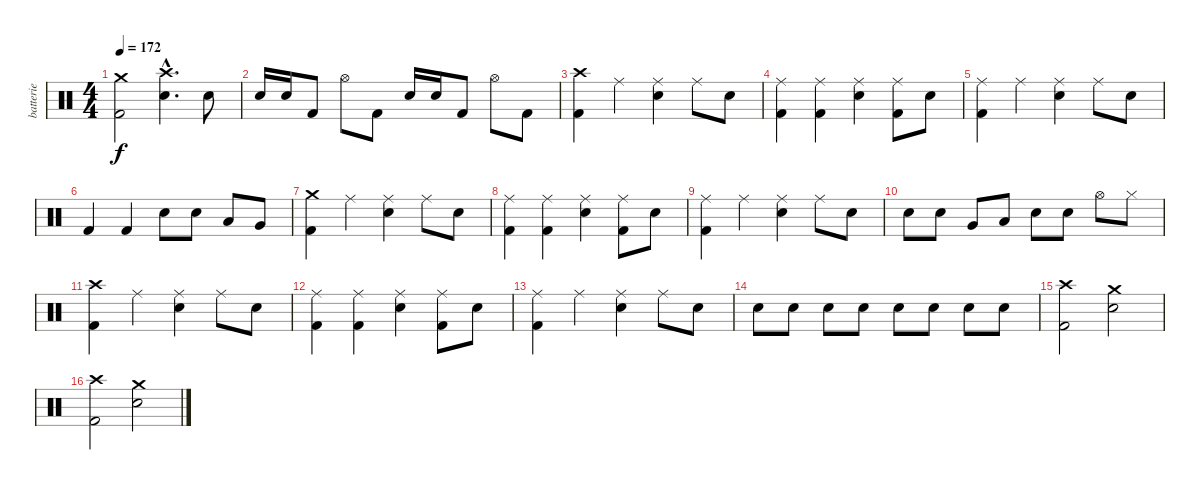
\track ("batterie" "batterie") {instrument percussion}
\staff {score}
\articulation defaults
\ts (4 4)
\tempo 172
\clef neutral
\ks c
("Kick (hit) 2" "Crash medium (hit)").2{dy f} ("Crash high (hit)"{hac} "Electric Snare (hit)"{hac}).4{d} "Electric Snare (hit)".8 |
"Electric Snare (hit)".16 "Electric Snare (hit)".16 "Kick (hit) 2".8 "Hi-Hat (open)".8 "Kick (hit) 2".8 "Electric Snare (hit)".16 "Electric Snare (hit)".16 "Kick (hit) 2".8 "Hi-Hat (open)".8 "Kick (hit) 2".8 |
("Crash high (hit)" "Kick (hit) 2").4 "Ride (middle)".4 ("Electric Snare (hit)" "Ride (middle)").4 "Ride (middle)".8 "Electric Snare (hit)".8 |
("Kick (hit) 2" "Ride (middle)").4 ("Kick (hit) 2" "Ride (middle)").4 ("Ride (middle)" "Electric Snare (hit)").4 ("Ride (middle)" "Kick (hit) 2").8 "Electric Snare (hit)".8 |
("Ride (middle)" "Kick (hit) 2").4 "Ride (middle)".4 ("Ride (middle)" "Electric Snare (hit)").4 "Ride (middle)".8 "Electric Snare (hit)".8 |
"Kick (hit) 2".4 "Kick (hit) 2".4 "Electric Snare (hit)".8 "Electric Snare (hit)".8 "Low Tom (hit)".8 "Very Low Tom (hit)".8 |
("Crash medium (hit)" "Kick (hit) 2").4 "Ride (middle)".4 ("Electric Snare (hit)" "Ride (middle)").4 "Ride (middle)".8 "Electric Snare (hit)".8 |
("Kick (hit) 2" "Ride (middle)").4 ("Kick (hit) 2" "Ride (middle)").4 ("Ride (middle)" "Electric Snare (hit)").4 ("Ride (middle)" "Kick (hit) 2").8 "Electric Snare (hit)".8 |
("Ride (middle)" "Kick (hit) 2").4 "Ride (middle)".4 ("Ride (middle)" "Electric Snare (hit)").4 "Ride (middle)".8 "Electric Snare (hit)".8 |
"Electric Snare (hit)".8 "Electric Snare (hit)".8 "Very Low Tom (hit)".8 "Low Tom (hit)".8 "Electric Snare (hit)".8 "Electric Snare (hit)".8 "Hi-Hat (open)".8 "Hi-Hat (closed)".8 |
("Crash high (hit)" "Kick (hit) 2").4 "Ride (middle)".4 ("Electric Snare (hit)" "Ride (middle)").4 "Ride (middle)".8 "Electric Snare (hit)".8 |
("Kick (hit) 2" "Ride (middle)").4 ("Kick (hit) 2" "Ride (middle)").4 ("Ride (middle)" "Electric Snare (hit)").4 ("Ride (middle)" "Kick (hit) 2").8 "Electric Snare (hit)".8 |
("Ride (middle)" "Kick (hit) 2").4 "Ride (middle)".4 ("Ride (middle)" "Electric Snare (hit)").4 "Ride (middle)".8 "Electric Snare (hit)".8 |
"Electric Snare (hit)".8 "Electric Snare (hit)".8 "Electric Snare (hit)".8 "Electric Snare (hit)".8 "Electric Snare (hit)".8 "Electric Snare (hit)".8 "Electric Snare (hit)".8 "Electric Snare (hit)".8 |
("Kick (hit) 2" "Crash high (hit)").2 ("Electric Snare (hit)" "Crash medium (hit)").2 |
("Crash high (hit)" "Kick (hit) 2").2 ("Crash medium (hit)" "Electric Snare (hit)").2
